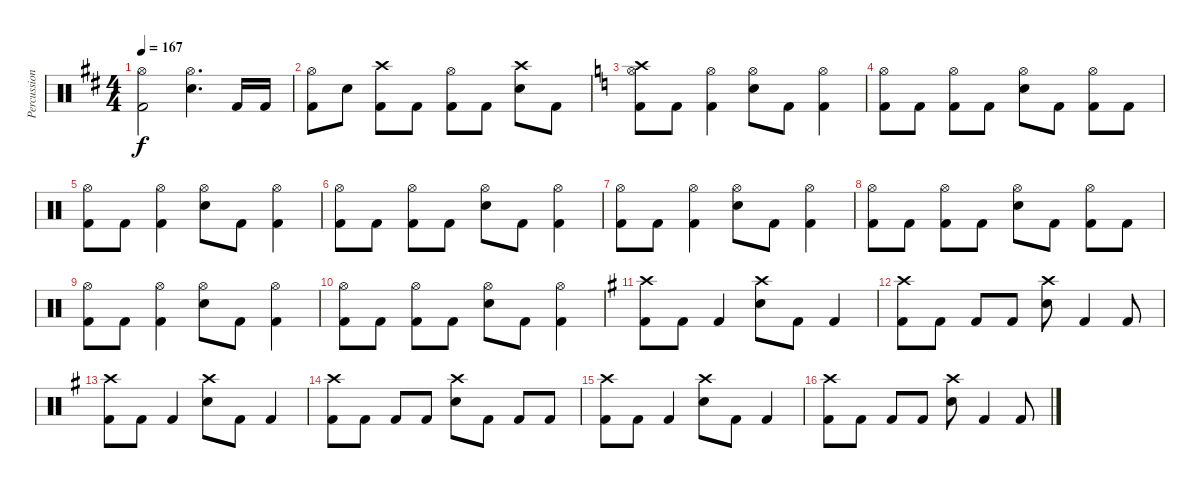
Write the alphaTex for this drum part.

\track ("Percussion" "Percussion") {instrument percussion}
\staff {score}
\articulation defaults
\ts (4 4)
\tempo 167
\clef neutral
\ks d
("Hi-Hat (open)" "Kick (hit) 2").2{dy f} ("Hi-Hat (open)" "Electric Snare (hit)").4{d} "Kick (hit) 2".16 "Kick (hit) 2".16 |
("Hi-Hat (open)" "Kick (hit) 2").8 "Electric Snare (hit)".8 ("Crash high (hit)" "Kick (hit) 2").8 "Kick (hit) 2".8 ("Hi-Hat (open)" "Kick (hit) 2").8 "Kick (hit) 2".8 ("Crash high (hit)" "Electric Snare (hit)").8 "Kick (hit) 2".8 |
\ks aminor
("Hi-Hat (open)" "Crash high (hit)" "Kick (hit) 2").8 "Kick (hit) 2".8 ("Hi-Hat (open)" "Kick (hit) 2").4 ("Hi-Hat (open)" "Electric Snare (hit)").8 "Kick (hit) 2".8 ("Hi-Hat (open)" "Kick (hit) 2").4 |
("Hi-Hat (open)" "Kick (hit) 2").8 "Kick (hit) 2".8 ("Hi-Hat (open)" "Kick (hit) 2").8 "Kick (hit) 2".8 ("Hi-Hat (open)" "Electric Snare (hit)").8 "Kick (hit) 2".8 ("Hi-Hat (open)" "Kick (hit) 2").8 "Kick (hit) 2".8 |
("Hi-Hat (open)" "Kick (hit) 2").8 "Kick (hit) 2".8 ("Hi-Hat (open)" "Kick (hit) 2").4 ("Hi-Hat (open)" "Electric Snare (hit)").8 "Kick (hit) 2".8 ("Hi-Hat (open)" "Kick (hit) 2").4 |
("Hi-Hat (open)" "Kick (hit) 2").8 "Kick (hit) 2".8 ("Hi-Hat (open)" "Kick (hit) 2").8 "Kick (hit) 2".8 ("Hi-Hat (open)" "Electric Snare (hit)").8 "Kick (hit) 2".8 ("Hi-Hat (open)" "Kick (hit) 2").4 |
("Hi-Hat (open)" "Kick (hit) 2").8 "Kick (hit) 2".8 ("Hi-Hat (open)" "Kick (hit) 2").4 ("Hi-Hat (open)" "Electric Snare (hit)").8 "Kick (hit) 2".8 ("Hi-Hat (open)" "Kick (hit) 2").4 |
("Hi-Hat (open)" "Kick (hit) 2").8 "Kick (hit) 2".8 ("Hi-Hat (open)" "Kick (hit) 2").8 "Kick (hit) 2".8 ("Hi-Hat (open)" "Electric Snare (hit)").8 "Kick (hit) 2".8 ("Hi-Hat (open)" "Kick (hit) 2").8 "Kick (hit) 2".8 |
("Hi-Hat (open)" "Kick (hit) 2").8 "Kick (hit) 2".8 ("Hi-Hat (open)" "Kick (hit) 2").4 ("Hi-Hat (open)" "Electric Snare (hit)").8 "Kick (hit) 2".8 ("Hi-Hat (open)" "Kick (hit) 2").4 |
("Hi-Hat (open)" "Kick (hit) 2").8 "Kick (hit) 2".8 ("Hi-Hat (open)" "Kick (hit) 2").8 "Kick (hit) 2".8 ("Hi-Hat (open)" "Electric Snare (hit)").8 "Kick (hit) 2".8 ("Hi-Hat (open)" "Kick (hit) 2").4 |
\ks eminor
("Crash high (hit)" "Kick (hit) 2").8 "Kick (hit) 2".8 "Kick (hit) 2".4 ("Crash high (hit)" "Electric Snare (hit)").8 "Kick (hit) 2".8 "Kick (hit) 2".4 |
("Crash high (hit)" "Kick (hit) 2").8 "Kick (hit) 2".8 "Kick (hit) 2".8 "Kick (hit) 2".8 ("Crash high (hit)" "Electric Snare (hit)").8 "Kick (hit) 2".4 "Kick (hit) 2".8 |
("Crash high (hit)" "Kick (hit) 2").8 "Kick (hit) 2".8 "Kick (hit) 2".4 ("Crash high (hit)" "Electric Snare (hit)").8 "Kick (hit) 2".8 "Kick (hit) 2".4 |
("Crash high (hit)" "Kick (hit) 2").8 "Kick (hit) 2".8 "Kick (hit) 2".8 "Kick (hit) 2".8 ("Crash high (hit)" "Electric Snare (hit)").8 "Kick (hit) 2".8 "Kick (hit) 2".8 "Kick (hit) 2".8 |
("Crash high (hit)" "Kick (hit) 2").8 "Kick (hit) 2".8 "Kick (hit) 2".4 ("Crash high (hit)" "Electric Snare (hit)").8 "Kick (hit) 2".8 "Kick (hit) 2".4 |
("Crash high (hit)" "Kick (hit) 2").8 "Kick (hit) 2".8 "Kick (hit) 2".8 "Kick (hit) 2".8 ("Crash high (hit)" "Electric Snare (hit)").8 "Kick (hit) 2".4 "Kick (hit) 2".8
